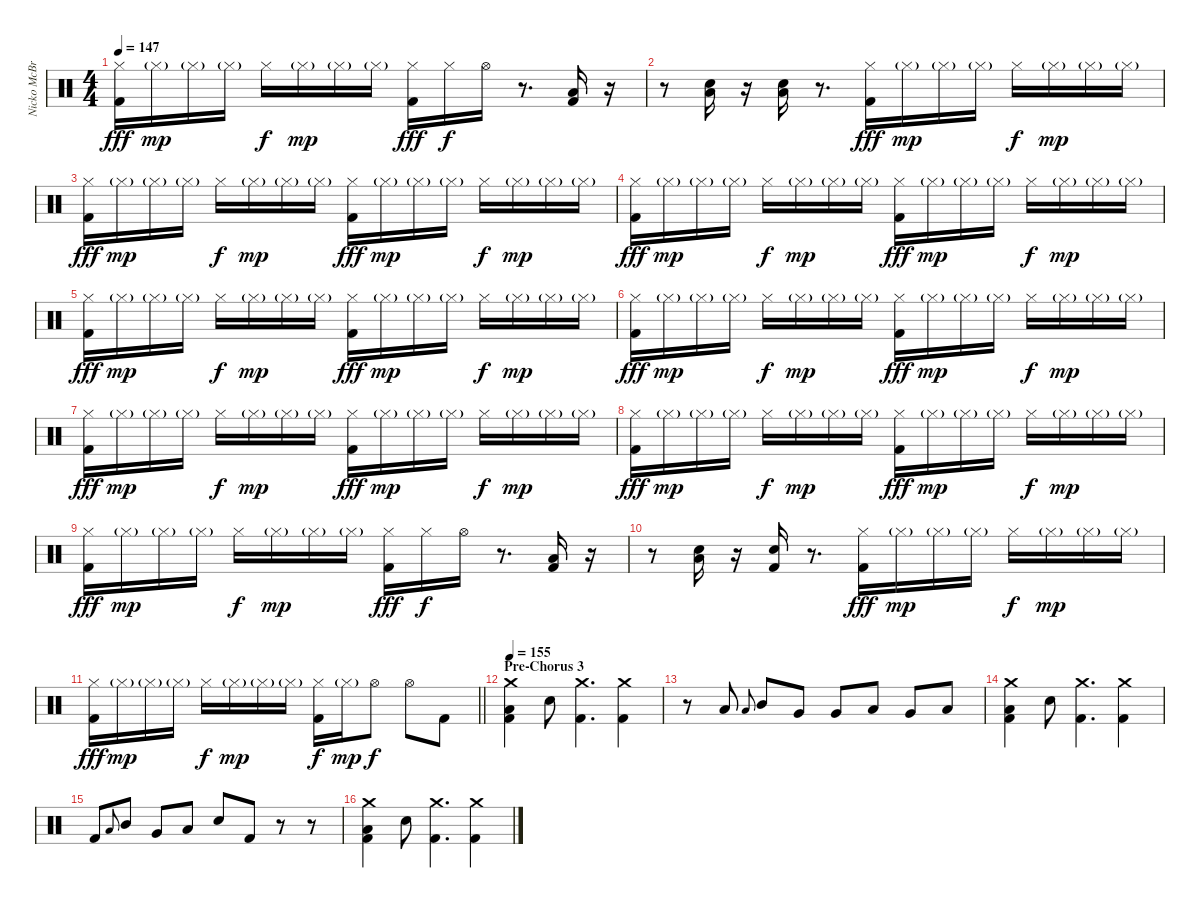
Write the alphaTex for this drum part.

\track ("Nicko McBrain" "Nicko McBr") {instrument percussion}
\staff {score}
\articulation defaults
\ts (4 4)
\tempo 147
\clef neutral
\ks c
("Hi-Hat (closed)" "Kick (hit) 2").16{dy fff} "Hi-Hat (closed)"{g}.16{dy mp} "Hi-Hat (closed)"{g}.16 "Hi-Hat (closed)"{g}.16 "Hi-Hat (closed)".16{dy f} "Hi-Hat (closed)"{g}.16{dy mp} "Hi-Hat (closed)"{g}.16 "Hi-Hat (closed)"{g}.16 ("Hi-Hat (closed)" "Kick (hit) 2").16{dy fff} "Hi-Hat (closed)".16{dy f} "Hi-Hat (open)".16 r.8{d} ("Low Floor Tom (hit)" "Kick (hit) 2").16 r.16 |
r.8 ("Low Floor Tom (hit)" "Snare (hit) 2").16 r.16 ("Low Floor Tom (hit)" "Snare (hit) 2").16 r.8{d} ("Hi-Hat (closed)" "Kick (hit) 2").16{dy fff} "Hi-Hat (closed)"{g}.16{dy mp} "Hi-Hat (closed)"{g}.16 "Hi-Hat (closed)"{g}.16 "Hi-Hat (closed)".16{dy f} "Hi-Hat (closed)"{g}.16{dy mp} "Hi-Hat (closed)"{g}.16 "Hi-Hat (closed)"{g}.16 |
("Hi-Hat (closed)" "Kick (hit) 2").16{dy fff} "Hi-Hat (closed)"{g}.16{dy mp} "Hi-Hat (closed)"{g}.16 "Hi-Hat (closed)"{g}.16 "Hi-Hat (closed)".16{dy f} "Hi-Hat (closed)"{g}.16{dy mp} "Hi-Hat (closed)"{g}.16 "Hi-Hat (closed)"{g}.16 ("Hi-Hat (closed)" "Kick (hit) 2").16{dy fff} "Hi-Hat (closed)"{g}.16{dy mp} "Hi-Hat (closed)"{g}.16 "Hi-Hat (closed)"{g}.16 "Hi-Hat (closed)".16{dy f} "Hi-Hat (closed)"{g}.16{dy mp} "Hi-Hat (closed)"{g}.16 "Hi-Hat (closed)"{g}.16 |
("Hi-Hat (closed)" "Kick (hit) 2").16{dy fff} "Hi-Hat (closed)"{g}.16{dy mp} "Hi-Hat (closed)"{g}.16 "Hi-Hat (closed)"{g}.16 "Hi-Hat (closed)".16{dy f} "Hi-Hat (closed)"{g}.16{dy mp} "Hi-Hat (closed)"{g}.16 "Hi-Hat (closed)"{g}.16 ("Hi-Hat (closed)" "Kick (hit) 2").16{dy fff} "Hi-Hat (closed)"{g}.16{dy mp} "Hi-Hat (closed)"{g}.16 "Hi-Hat (closed)"{g}.16 "Hi-Hat (closed)".16{dy f} "Hi-Hat (closed)"{g}.16{dy mp} "Hi-Hat (closed)"{g}.16 "Hi-Hat (closed)"{g}.16 |
("Hi-Hat (closed)" "Kick (hit) 2").16{dy fff} "Hi-Hat (closed)"{g}.16{dy mp} "Hi-Hat (closed)"{g}.16 "Hi-Hat (closed)"{g}.16 "Hi-Hat (closed)".16{dy f} "Hi-Hat (closed)"{g}.16{dy mp} "Hi-Hat (closed)"{g}.16 "Hi-Hat (closed)"{g}.16 ("Hi-Hat (closed)" "Kick (hit) 2").16{dy fff} "Hi-Hat (closed)"{g}.16{dy mp} "Hi-Hat (closed)"{g}.16 "Hi-Hat (closed)"{g}.16 "Hi-Hat (closed)".16{dy f} "Hi-Hat (closed)"{g}.16{dy mp} "Hi-Hat (closed)"{g}.16 "Hi-Hat (closed)"{g}.16 |
("Hi-Hat (closed)" "Kick (hit) 2").16{dy fff} "Hi-Hat (closed)"{g}.16{dy mp} "Hi-Hat (closed)"{g}.16 "Hi-Hat (closed)"{g}.16 "Hi-Hat (closed)".16{dy f} "Hi-Hat (closed)"{g}.16{dy mp} "Hi-Hat (closed)"{g}.16 "Hi-Hat (closed)"{g}.16 ("Hi-Hat (closed)" "Kick (hit) 2").16{dy fff} "Hi-Hat (closed)"{g}.16{dy mp} "Hi-Hat (closed)"{g}.16 "Hi-Hat (closed)"{g}.16 "Hi-Hat (closed)".16{dy f} "Hi-Hat (closed)"{g}.16{dy mp} "Hi-Hat (closed)"{g}.16 "Hi-Hat (closed)"{g}.16 |
("Hi-Hat (closed)" "Kick (hit) 2").16{dy fff} "Hi-Hat (closed)"{g}.16{dy mp} "Hi-Hat (closed)"{g}.16 "Hi-Hat (closed)"{g}.16 "Hi-Hat (closed)".16{dy f} "Hi-Hat (closed)"{g}.16{dy mp} "Hi-Hat (closed)"{g}.16 "Hi-Hat (closed)"{g}.16 ("Hi-Hat (closed)" "Kick (hit) 2").16{dy fff} "Hi-Hat (closed)"{g}.16{dy mp} "Hi-Hat (closed)"{g}.16 "Hi-Hat (closed)"{g}.16 "Hi-Hat (closed)".16{dy f} "Hi-Hat (closed)"{g}.16{dy mp} "Hi-Hat (closed)"{g}.16 "Hi-Hat (closed)"{g}.16 |
("Hi-Hat (closed)" "Kick (hit) 2").16{dy fff} "Hi-Hat (closed)"{g}.16{dy mp} "Hi-Hat (closed)"{g}.16 "Hi-Hat (closed)"{g}.16 "Hi-Hat (closed)".16{dy f} "Hi-Hat (closed)"{g}.16{dy mp} "Hi-Hat (closed)"{g}.16 "Hi-Hat (closed)"{g}.16 ("Hi-Hat (closed)" "Kick (hit) 2").16{dy fff} "Hi-Hat (closed)"{g}.16{dy mp} "Hi-Hat (closed)"{g}.16 "Hi-Hat (closed)"{g}.16 "Hi-Hat (closed)".16{dy f} "Hi-Hat (closed)"{g}.16{dy mp} "Hi-Hat (closed)"{g}.16 "Hi-Hat (closed)"{g}.16 |
("Hi-Hat (closed)" "Kick (hit) 2").16{dy fff} "Hi-Hat (closed)"{g}.16{dy mp} "Hi-Hat (closed)"{g}.16 "Hi-Hat (closed)"{g}.16 "Hi-Hat (closed)".16{dy f} "Hi-Hat (closed)"{g}.16{dy mp} "Hi-Hat (closed)"{g}.16 "Hi-Hat (closed)"{g}.16 ("Hi-Hat (closed)" "Kick (hit) 2").16{dy fff} "Hi-Hat (closed)".16{dy f} "Hi-Hat (open)".16 r.8{d} ("Low Floor Tom (hit)" "Kick (hit) 2").16 r.16 |
r.8 ("Low Floor Tom (hit)" "Snare (hit) 2").16 r.16 ("Snare (hit) 2" "Kick (hit) 2").16 r.8{d} ("Hi-Hat (closed)" "Kick (hit) 2").16{dy fff} "Hi-Hat (closed)"{g}.16{dy mp} "Hi-Hat (closed)"{g}.16 "Hi-Hat (closed)"{g}.16 "Hi-Hat (closed)".16{dy f} "Hi-Hat (closed)"{g}.16{dy mp} "Hi-Hat (closed)"{g}.16 "Hi-Hat (closed)"{g}.16 |
\barLineRight lightlight
("Hi-Hat (closed)" "Kick (hit) 2").16{dy fff} "Hi-Hat (closed)"{g}.16{dy mp} "Hi-Hat (closed)"{g}.16 "Hi-Hat (closed)"{g}.16 "Hi-Hat (closed)".16{dy f} "Hi-Hat (closed)"{g}.16{dy mp} "Hi-Hat (closed)"{g}.16 "Hi-Hat (closed)"{g}.16 ("Hi-Hat (closed)" "Kick (hit) 2").16{dy f} "Hi-Hat (closed)"{g}.16{dy mp} "Hi-Hat (open)".8{dy f} "Hi-Hat (open)".8 "Kick (hit) 2".8 |
\section ("" "Pre-Chorus 3")
\tempo 155
("Crash medium (hit)" "Low Floor Tom (hit)" "Kick (hit) 2").4 "Snare (hit) 2".8 ("Crash medium (hit)" "Kick (hit) 2").4{d} ("Crash medium (hit)" "Kick (hit) 2").4 |
r.8 "Low Floor Tom (hit)".8 "Low Tom (hit)".8{gr onbeat} "Mid Tom (hit)".8 "Very Low Tom (hit)".8 "Very Low Tom (hit)".8 "Low Tom (hit)".8 "Very Low Tom (hit)".8 "Low Floor Tom (hit)".8 |
("Crash medium (hit)" "Low Floor Tom (hit)" "Kick (hit) 2").4 "Snare (hit) 2".8 ("Crash medium (hit)" "Kick (hit) 2").4{d} ("Crash medium (hit)" "Kick (hit) 2").4 |
"Kick (hit) 2".8 "Low Tom (hit)".8{gr onbeat} "Mid Tom (hit)".8 "Very Low Tom (hit)".8 "Low Tom (hit)".8 "Snare (hit) 2".8 "Kick (hit) 2".8 r.8 r.8 |
("Crash medium (hit)" "Low Floor Tom (hit)" "Kick (hit) 2").4 "Snare (hit) 2".8 ("Crash medium (hit)" "Kick (hit) 2").4{d} ("Crash medium (hit)" "Kick (hit) 2").4
